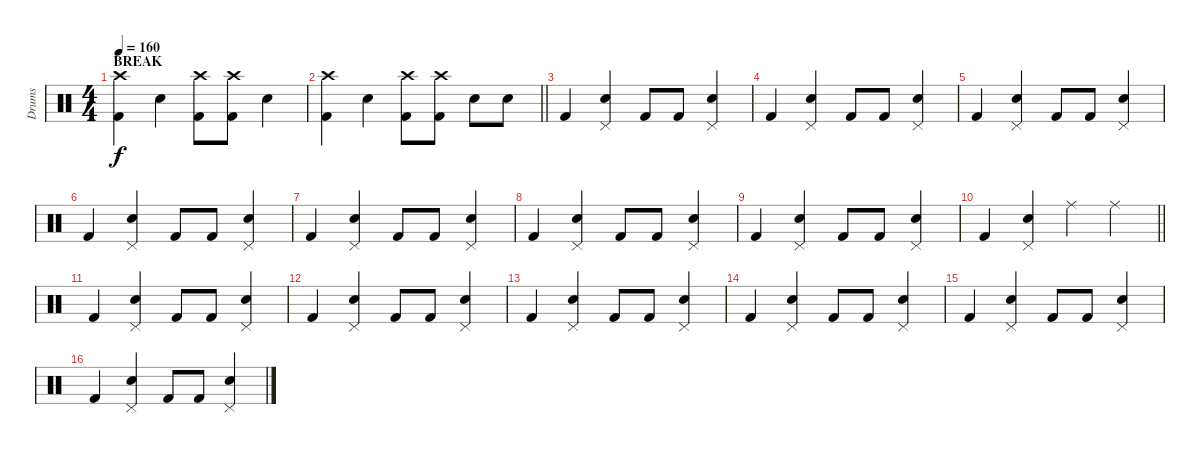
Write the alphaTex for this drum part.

\track ("Drums" "Drums") {instrument percussion}
\staff {score}
\articulation defaults
\ts (4 4)
\section ("" "BREAK")
\tempo 160
\clef neutral
\ks c
("Kick (hit) 2" "Crash high (hit)").4{dy f} "Snare (hit) 2".4 ("Kick (hit) 2" "Crash high (hit)").8 ("Kick (hit) 2" "Crash high (hit)").8 "Snare (hit) 2".4 |
\barLineRight lightlight
("Kick (hit) 2" "Crash high (hit)").4 "Snare (hit) 2".4 ("Kick (hit) 2" "Crash high (hit)").8 ("Kick (hit) 2" "Crash high (hit)").8 "Snare (hit) 2".8 "Snare (hit) 2".8 |
"Kick (hit) 2".4 ("Pedal Hi-Hat (hit)" "Electric Snare (hit)").4 "Kick (hit) 2".8 "Kick (hit) 2".8 ("Pedal Hi-Hat (hit)" "Electric Snare (hit)").4 |
"Kick (hit) 2".4 ("Pedal Hi-Hat (hit)" "Electric Snare (hit)").4 "Kick (hit) 2".8 "Kick (hit) 2".8 ("Pedal Hi-Hat (hit)" "Electric Snare (hit)").4 |
"Kick (hit) 2".4 ("Pedal Hi-Hat (hit)" "Electric Snare (hit)").4 "Kick (hit) 2".8 "Kick (hit) 2".8 ("Pedal Hi-Hat (hit)" "Electric Snare (hit)").4 |
"Kick (hit) 2".4 ("Pedal Hi-Hat (hit)" "Electric Snare (hit)").4 "Kick (hit) 2".8 "Kick (hit) 2".8 ("Pedal Hi-Hat (hit)" "Electric Snare (hit)").4 |
"Kick (hit) 2".4 ("Pedal Hi-Hat (hit)" "Electric Snare (hit)").4 "Kick (hit) 2".8 "Kick (hit) 2".8 ("Pedal Hi-Hat (hit)" "Electric Snare (hit)").4 |
"Kick (hit) 2".4 ("Pedal Hi-Hat (hit)" "Electric Snare (hit)").4 "Kick (hit) 2".8 "Kick (hit) 2".8 ("Pedal Hi-Hat (hit)" "Electric Snare (hit)").4 |
"Kick (hit) 2".4 ("Pedal Hi-Hat (hit)" "Electric Snare (hit)").4 "Kick (hit) 2".8 "Kick (hit) 2".8 ("Pedal Hi-Hat (hit)" "Electric Snare (hit)").4 |
\barLineRight lightlight "Kick (hit) 2".4
("Pedal Hi-Hat (hit)" "Electric Snare (hit)").4 "Ride (middle)".4 "Ride (middle)".4 |
"Kick (hit) 2".4 ("Pedal Hi-Hat (hit)" "Electric Snare (hit)").4 "Kick (hit) 2".8 "Kick (hit) 2".8 ("Pedal Hi-Hat (hit)" "Electric Snare (hit)").4 |
"Kick (hit) 2".4 ("Pedal Hi-Hat (hit)" "Electric Snare (hit)").4 "Kick (hit) 2".8 "Kick (hit) 2".8 ("Pedal Hi-Hat (hit)" "Electric Snare (hit)").4 |
"Kick (hit) 2".4 ("Pedal Hi-Hat (hit)" "Electric Snare (hit)").4 "Kick (hit) 2".8 "Kick (hit) 2".8 ("Pedal Hi-Hat (hit)" "Electric Snare (hit)").4 |
"Kick (hit) 2".4 ("Pedal Hi-Hat (hit)" "Electric Snare (hit)").4 "Kick (hit) 2".8 "Kick (hit) 2".8 ("Pedal Hi-Hat (hit)" "Electric Snare (hit)").4 |
"Kick (hit) 2".4 ("Pedal Hi-Hat (hit)" "Electric Snare (hit)").4 "Kick (hit) 2".8 "Kick (hit) 2".8 ("Pedal Hi-Hat (hit)" "Electric Snare (hit)").4 |
"Kick (hit) 2".4 ("Pedal Hi-Hat (hit)" "Electric Snare (hit)").4 "Kick (hit) 2".8 "Kick (hit) 2".8 ("Pedal Hi-Hat (hit)" "Electric Snare (hit)").4
